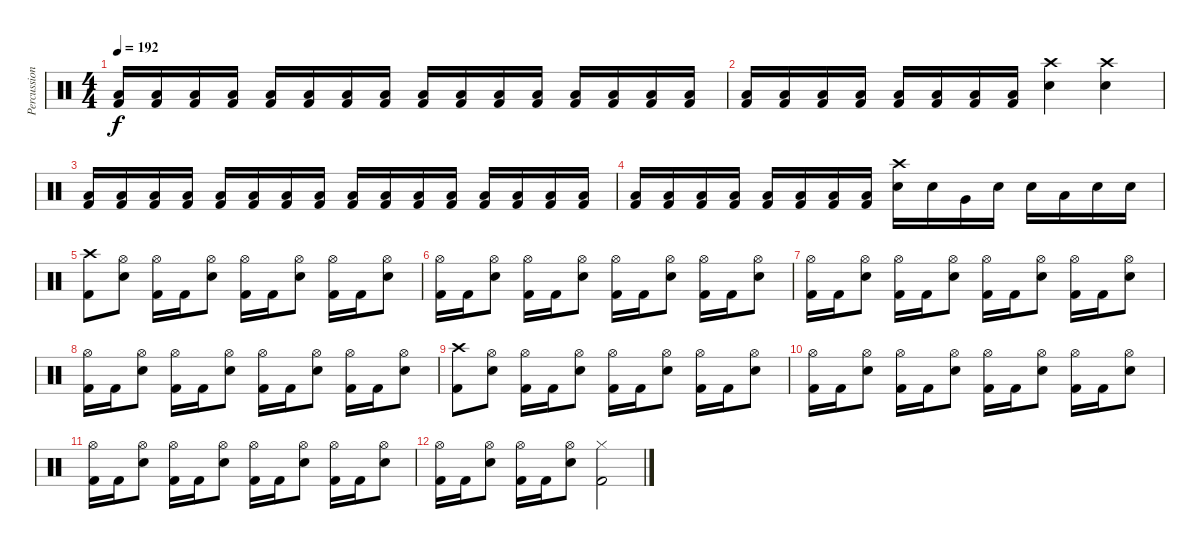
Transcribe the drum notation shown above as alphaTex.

\track ("Percussion" "Percussion") {instrument percussion}
\staff {score}
\articulation defaults
\ts (4 4)
\tempo 192
\clef neutral
\ks c
("Low Floor Tom (hit)" "Kick (hit) 2").16{dy f} ("Low Floor Tom (hit)" "Kick (hit) 2").16 ("Low Floor Tom (hit)" "Kick (hit) 2").16 ("Low Tom (hit)" "Kick (hit) 2").16 ("Low Floor Tom (hit)" "Kick (hit) 2").16 ("Low Floor Tom (hit)" "Kick (hit) 2").16 ("Low Floor Tom (hit)" "Kick (hit) 2").16 ("Low Tom (hit)" "Kick (hit) 2").16 ("Low Floor Tom (hit)" "Kick (hit) 2").16 ("Low Floor Tom (hit)" "Kick (hit) 2").16 ("Low Floor Tom (hit)" "Kick (hit) 2").16 ("Low Tom (hit)" "Kick (hit) 2").16 ("Low Floor Tom (hit)" "Kick (hit) 2").16 ("Low Floor Tom (hit)" "Kick (hit) 2").16 ("Low Floor Tom (hit)" "Kick (hit) 2").16 ("Low Tom (hit)" "Kick (hit) 2").16 |
("Low Floor Tom (hit)" "Kick (hit) 2").16 ("Low Floor Tom (hit)" "Kick (hit) 2").16 ("Low Floor Tom (hit)" "Kick (hit) 2").16 ("Low Tom (hit)" "Kick (hit) 2").16 ("Low Floor Tom (hit)" "Kick (hit) 2").16 ("Low Floor Tom (hit)" "Kick (hit) 2").16 ("Low Floor Tom (hit)" "Kick (hit) 2").16 ("Low Tom (hit)" "Kick (hit) 2").16 ("Crash high (hit)" "Snare (hit) 2").4 ("Crash high (hit)" "Snare (hit) 2").4 |
("Low Floor Tom (hit)" "Kick (hit) 2").16 ("Low Floor Tom (hit)" "Kick (hit) 2").16 ("Low Floor Tom (hit)" "Kick (hit) 2").16 ("Low Tom (hit)" "Kick (hit) 2").16 ("Low Floor Tom (hit)" "Kick (hit) 2").16 ("Low Floor Tom (hit)" "Kick (hit) 2").16 ("Low Floor Tom (hit)" "Kick (hit) 2").16 ("Low Tom (hit)" "Kick (hit) 2").16 ("Low Floor Tom (hit)" "Kick (hit) 2").16 ("Low Floor Tom (hit)" "Kick (hit) 2").16 ("Low Floor Tom (hit)" "Kick (hit) 2").16 ("Low Tom (hit)" "Kick (hit) 2").16 ("Low Floor Tom (hit)" "Kick (hit) 2").16 ("Low Floor Tom (hit)" "Kick (hit) 2").16 ("Low Floor Tom (hit)" "Kick (hit) 2").16 ("Low Tom (hit)" "Kick (hit) 2").16 |
("Low Floor Tom (hit)" "Kick (hit) 2").16 ("Low Floor Tom (hit)" "Kick (hit) 2").16 ("Low Floor Tom (hit)" "Kick (hit) 2").16 ("Low Tom (hit)" "Kick (hit) 2").16 ("Low Floor Tom (hit)" "Kick (hit) 2").16 ("Low Floor Tom (hit)" "Kick (hit) 2").16 ("Low Floor Tom (hit)" "Kick (hit) 2").16 ("Low Tom (hit)" "Kick (hit) 2").16 ("Crash high (hit)" "Snare (hit) 2").16 "Snare (hit) 2".16 "Very Low Tom (hit)".16 "Snare (hit) 2".16 "Snare (hit) 2".16 "Low Tom (hit)".16 "Snare (hit) 2".16 "Snare (hit) 2".16 |
("Crash high (hit)" "Kick (hit) 2").8 ("Hi-Hat (open)" "Snare (hit) 2").8 ("Hi-Hat (open)" "Kick (hit) 2").16 "Kick (hit) 2".16 ("Hi-Hat (open)" "Snare (hit) 2").8 ("Hi-Hat (open)" "Kick (hit) 2").16 "Kick (hit) 2".16 ("Hi-Hat (open)" "Snare (hit) 2").8 ("Hi-Hat (open)" "Kick (hit) 2").16 "Kick (hit) 2".16 ("Hi-Hat (open)" "Snare (hit) 2").8 |
("Hi-Hat (open)" "Kick (hit) 2").16 "Kick (hit) 2".16 ("Hi-Hat (open)" "Snare (hit) 2").8 ("Hi-Hat (open)" "Kick (hit) 2").16 "Kick (hit) 2".16 ("Hi-Hat (open)" "Snare (hit) 2").8 ("Hi-Hat (open)" "Kick (hit) 2").16 "Kick (hit) 2".16 ("Hi-Hat (open)" "Snare (hit) 2").8 ("Hi-Hat (open)" "Kick (hit) 2").16 "Kick (hit) 2".16 ("Hi-Hat (open)" "Snare (hit) 2").8 |
("Hi-Hat (open)" "Kick (hit) 2").16 "Kick (hit) 2".16 ("Hi-Hat (open)" "Snare (hit) 2").8 ("Hi-Hat (open)" "Kick (hit) 2").16 "Kick (hit) 2".16 ("Hi-Hat (open)" "Snare (hit) 2").8 ("Hi-Hat (open)" "Kick (hit) 2").16 "Kick (hit) 2".16 ("Hi-Hat (open)" "Snare (hit) 2").8 ("Hi-Hat (open)" "Kick (hit) 2").16 "Kick (hit) 2".16 ("Hi-Hat (open)" "Snare (hit) 2").8 |
("Hi-Hat (open)" "Kick (hit) 2").16 "Kick (hit) 2".16 ("Hi-Hat (open)" "Snare (hit) 2").8 ("Hi-Hat (open)" "Kick (hit) 2").16 "Kick (hit) 2".16 ("Hi-Hat (open)" "Snare (hit) 2").8 ("Hi-Hat (open)" "Kick (hit) 2").16 "Kick (hit) 2".16 ("Hi-Hat (open)" "Snare (hit) 2").8 ("Hi-Hat (open)" "Kick (hit) 2").16 "Kick (hit) 2".16 ("Hi-Hat (open)" "Snare (hit) 2").8 |
("Crash high (hit)" "Kick (hit) 2").8 ("Hi-Hat (open)" "Snare (hit) 2").8 ("Hi-Hat (open)" "Kick (hit) 2").16 "Kick (hit) 2".16 ("Hi-Hat (open)" "Snare (hit) 2").8 ("Hi-Hat (open)" "Kick (hit) 2").16 "Kick (hit) 2".16 ("Hi-Hat (open)" "Snare (hit) 2").8 ("Hi-Hat (open)" "Kick (hit) 2").16 "Kick (hit) 2".16 ("Hi-Hat (open)" "Snare (hit) 2").8 |
("Hi-Hat (open)" "Kick (hit) 2").16 "Kick (hit) 2".16 ("Hi-Hat (open)" "Snare (hit) 2").8 ("Hi-Hat (open)" "Kick (hit) 2").16 "Kick (hit) 2".16 ("Hi-Hat (open)" "Snare (hit) 2").8 ("Hi-Hat (open)" "Kick (hit) 2").16 "Kick (hit) 2".16 ("Hi-Hat (open)" "Snare (hit) 2").8 ("Hi-Hat (open)" "Kick (hit) 2").16 "Kick (hit) 2".16 ("Hi-Hat (open)" "Snare (hit) 2").8 |
("Hi-Hat (open)" "Kick (hit) 2").16 "Kick (hit) 2".16 ("Hi-Hat (open)" "Snare (hit) 2").8 ("Hi-Hat (open)" "Kick (hit) 2").16 "Kick (hit) 2".16 ("Hi-Hat (open)" "Snare (hit) 2").8 ("Hi-Hat (open)" "Kick (hit) 2").16 "Kick (hit) 2".16 ("Hi-Hat (open)" "Snare (hit) 2").8 ("Hi-Hat (open)" "Kick (hit) 2").16 "Kick (hit) 2".16 ("Hi-Hat (open)" "Snare (hit) 2").8 |
("Hi-Hat (open)" "Kick (hit) 2").16 "Kick (hit) 2".16 ("Hi-Hat (open)" "Snare (hit) 2").8 ("Hi-Hat (open)" "Kick (hit) 2").16 "Kick (hit) 2".16 ("Hi-Hat (open)" "Snare (hit) 2").8 ("Hi-Hat (closed)" "Kick (hit) 2").2
